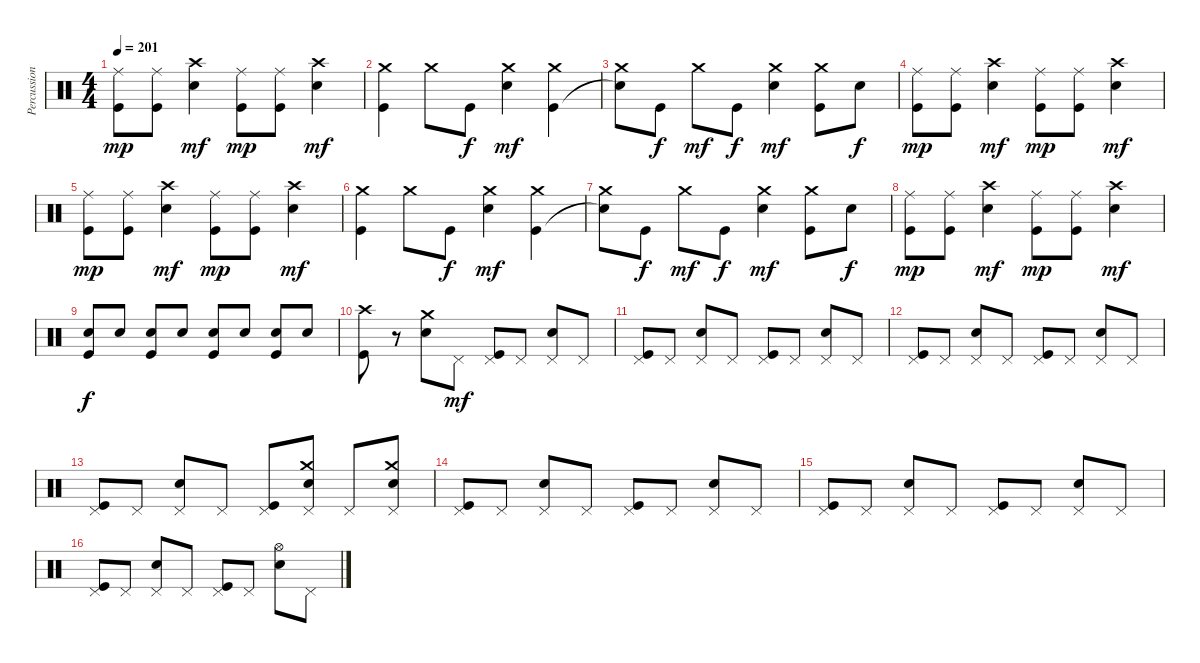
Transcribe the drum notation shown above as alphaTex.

\track ("Percussion" "Percussion") {instrument percussion}
\staff {score}
\articulation defaults
\ts (4 4)
\tempo 201
\clef neutral
\ks c
("Ride (middle)" "Kick (hit)").8{dy mp} ("Ride (middle)" "Kick (hit)").8 ("Crash high (hit)" "Electric Snare (hit)").4{dy mf} ("Ride (middle)" "Kick (hit)").8{dy mp} ("Ride (middle)" "Kick (hit)").8 ("Crash high (hit)" "Electric Snare (hit)").4{dy mf} |
("Crash medium (hit)" "Kick (hit)").4 "Crash medium (hit)".8 "Kick (hit)".8{dy f} ("Crash medium (hit)" "Electric Snare (hit)").4{dy mf} ("Crash medium (hit)" "Kick (hit)").4 |
("Crash medium (hit)" "Snare (hit)"{t}).8 "Kick (hit)".8{dy f} "Crash medium (hit)".8{dy mf} "Kick (hit)".8{dy f} ("Crash medium (hit)" "Electric Snare (hit)").4{dy mf} ("Crash medium (hit)" "Kick (hit)").8 "Electric Snare (hit)".8{dy f} |
("Ride (middle)" "Kick (hit)").8{dy mp} ("Ride (middle)" "Kick (hit)").8 ("Crash high (hit)" "Electric Snare (hit)").4{dy mf} ("Ride (middle)" "Kick (hit)").8{dy mp} ("Ride (middle)" "Kick (hit)").8 ("Crash high (hit)" "Electric Snare (hit)").4{dy mf} |
("Ride (middle)" "Kick (hit)").8{dy mp} ("Ride (middle)" "Kick (hit)").8 ("Crash high (hit)" "Electric Snare (hit)").4{dy mf} ("Ride (middle)" "Kick (hit)").8{dy mp} ("Ride (middle)" "Kick (hit)").8 ("Crash high (hit)" "Electric Snare (hit)").4{dy mf} |
("Crash medium (hit)" "Kick (hit)").4 "Crash medium (hit)".8 "Kick (hit)".8{dy f} ("Crash medium (hit)" "Electric Snare (hit)").4{dy mf} ("Crash medium (hit)" "Kick (hit)").4 |
("Crash medium (hit)" "Snare (hit)"{t}).8 "Kick (hit)".8{dy f} "Crash medium (hit)".8{dy mf} "Kick (hit)".8{dy f} ("Crash medium (hit)" "Electric Snare (hit)").4{dy mf} ("Crash medium (hit)" "Kick (hit)").8 "Electric Snare (hit)".8{dy f} |
("Ride (middle)" "Kick (hit)").8{dy mp} ("Ride (middle)" "Kick (hit)").8 ("Crash high (hit)" "Electric Snare (hit)").4{dy mf} ("Ride (middle)" "Kick (hit)").8{dy mp} ("Ride (middle)" "Kick (hit)").8 ("Crash high (hit)" "Electric Snare (hit)").4{dy mf} |
("Electric Snare (hit)" "Kick (hit)").8{dy f} "Electric Snare (hit)".8 ("Electric Snare (hit)" "Kick (hit)").8 "Electric Snare (hit)".8 ("Electric Snare (hit)" "Kick (hit)").8 "Electric Snare (hit)".8 ("Electric Snare (hit)" "Kick (hit)").8 "Electric Snare (hit)".8 |
("Crash high (hit)" "Kick (hit)").8 r.8 ("Crash medium (hit)" "Electric Snare (hit)").8 "Pedal Hi-Hat (hit)".8{dy mf} ("Pedal Hi-Hat (hit)" "Kick (hit)").8 "Pedal Hi-Hat (hit)".8 ("Pedal Hi-Hat (hit)" "Electric Snare (hit)").8 "Pedal Hi-Hat (hit)".8 |
("Pedal Hi-Hat (hit)" "Kick (hit)").8 "Pedal Hi-Hat (hit)".8 ("Pedal Hi-Hat (hit)" "Electric Snare (hit)").8 "Pedal Hi-Hat (hit)".8 ("Pedal Hi-Hat (hit)" "Kick (hit)").8 "Pedal Hi-Hat (hit)".8 ("Pedal Hi-Hat (hit)" "Electric Snare (hit)").8 "Pedal Hi-Hat (hit)".8 |
("Pedal Hi-Hat (hit)" "Kick (hit)").8 "Pedal Hi-Hat (hit)".8 ("Pedal Hi-Hat (hit)" "Electric Snare (hit)").8 "Pedal Hi-Hat (hit)".8 ("Pedal Hi-Hat (hit)" "Kick (hit)").8 "Pedal Hi-Hat (hit)".8 ("Pedal Hi-Hat (hit)" "Electric Snare (hit)").8 "Pedal Hi-Hat (hit)".8 |
("Pedal Hi-Hat (hit)" "Kick (hit)").8 "Pedal Hi-Hat (hit)".8 ("Pedal Hi-Hat (hit)" "Electric Snare (hit)").8 "Pedal Hi-Hat (hit)".8 ("Pedal Hi-Hat (hit)" "Kick (hit)").8 ("Crash medium (hit)" "Pedal Hi-Hat (hit)" "Electric Snare (hit)").8 "Pedal Hi-Hat (hit)".8 ("Crash medium (hit)" "Pedal Hi-Hat (hit)" "Electric Snare (hit)").8 |
("Pedal Hi-Hat (hit)" "Kick (hit)").8 "Pedal Hi-Hat (hit)".8 ("Pedal Hi-Hat (hit)" "Electric Snare (hit)").8 "Pedal Hi-Hat (hit)".8 ("Pedal Hi-Hat (hit)" "Kick (hit)").8 "Pedal Hi-Hat (hit)".8 ("Pedal Hi-Hat (hit)" "Electric Snare (hit)").8 "Pedal Hi-Hat (hit)".8 |
("Pedal Hi-Hat (hit)" "Kick (hit)").8 "Pedal Hi-Hat (hit)".8 ("Pedal Hi-Hat (hit)" "Electric Snare (hit)").8 "Pedal Hi-Hat (hit)".8 ("Pedal Hi-Hat (hit)" "Kick (hit)").8 "Pedal Hi-Hat (hit)".8 ("Pedal Hi-Hat (hit)" "Electric Snare (hit)").8 "Pedal Hi-Hat (hit)".8 |
("Pedal Hi-Hat (hit)" "Kick (hit)").8 "Pedal Hi-Hat (hit)".8 ("Pedal Hi-Hat (hit)" "Electric Snare (hit)").8 "Pedal Hi-Hat (hit)".8 ("Pedal Hi-Hat (hit)" "Kick (hit)").8 "Pedal Hi-Hat (hit)".8 ("Hi-Hat (open)" "Electric Snare (hit)").8 "Pedal Hi-Hat (hit)".8
